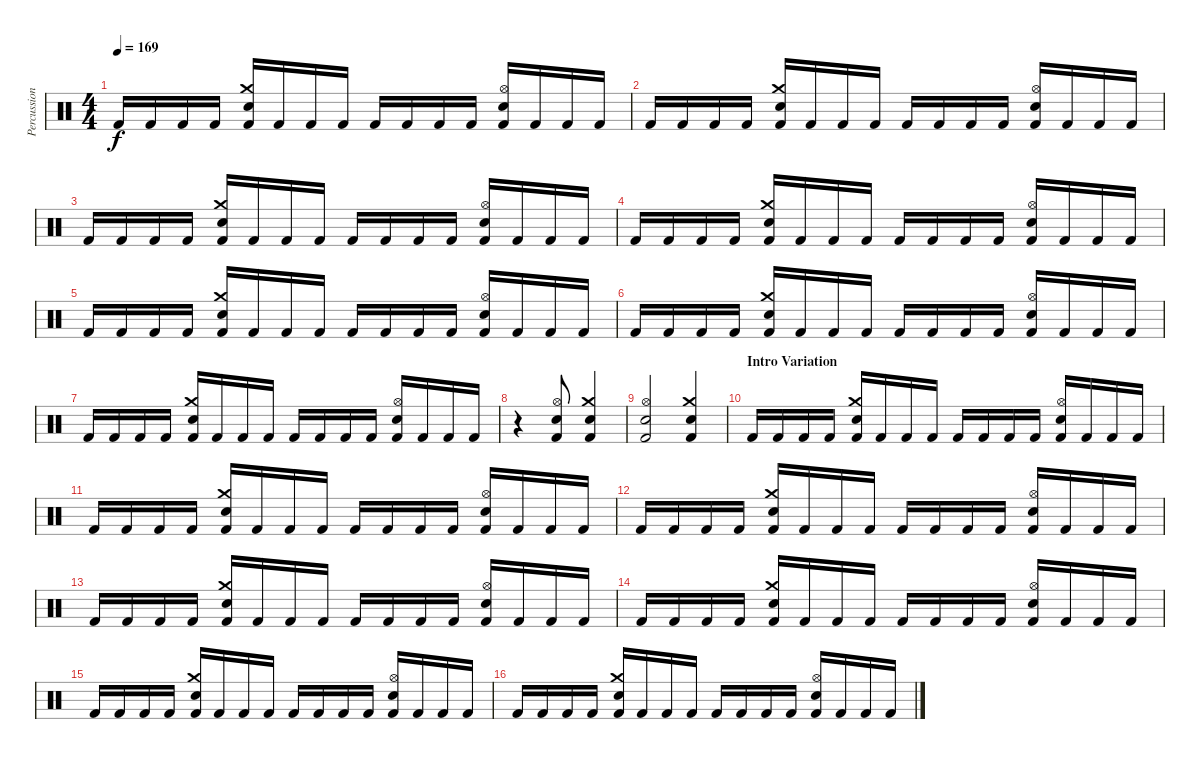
\track ("Percussion" "Percussion") {instrument percussion}
\staff {score}
\articulation defaults
\ts (4 4)
\tempo 169
\clef neutral
\ks c "Kick (hit) 2".16{dy f} "Kick (hit) 2".16 "Kick (hit) 2".16 "Kick (hit) 2".16
("Crash medium (hit)" "Electric Snare (hit)" "Kick (hit) 2").16 "Kick (hit) 2".16 "Kick (hit) 2".16 "Kick (hit) 2".16 "Kick (hit) 2".16 "Kick (hit) 2".16 "Kick (hit) 2".16 "Kick (hit) 2".16 ("Hi-Hat (open)" "Snare (hit) 2" "Kick (hit) 2").16 "Kick (hit) 2".16 "Kick (hit) 2".16 "Kick (hit) 2".16 |
"Kick (hit) 2".16 "Kick (hit) 2".16 "Kick (hit) 2".16 "Kick (hit) 2".16 ("Crash medium (hit)" "Electric Snare (hit)" "Kick (hit) 2").16 "Kick (hit) 2".16 "Kick (hit) 2".16 "Kick (hit) 2".16 "Kick (hit) 2".16 "Kick (hit) 2".16 "Kick (hit) 2".16 "Kick (hit) 2".16 ("Hi-Hat (open)" "Snare (hit) 2" "Kick (hit) 2").16 "Kick (hit) 2".16 "Kick (hit) 2".16 "Kick (hit) 2".16 |
"Kick (hit) 2".16 "Kick (hit) 2".16 "Kick (hit) 2".16 "Kick (hit) 2".16 ("Crash medium (hit)" "Electric Snare (hit)" "Kick (hit) 2").16 "Kick (hit) 2".16 "Kick (hit) 2".16 "Kick (hit) 2".16 "Kick (hit) 2".16 "Kick (hit) 2".16 "Kick (hit) 2".16 "Kick (hit) 2".16 ("Hi-Hat (open)" "Snare (hit) 2" "Kick (hit) 2").16 "Kick (hit) 2".16 "Kick (hit) 2".16 "Kick (hit) 2".16 |
"Kick (hit) 2".16 "Kick (hit) 2".16 "Kick (hit) 2".16 "Kick (hit) 2".16 ("Crash medium (hit)" "Electric Snare (hit)" "Kick (hit) 2").16 "Kick (hit) 2".16 "Kick (hit) 2".16 "Kick (hit) 2".16 "Kick (hit) 2".16 "Kick (hit) 2".16 "Kick (hit) 2".16 "Kick (hit) 2".16 ("Hi-Hat (open)" "Snare (hit) 2" "Kick (hit) 2").16 "Kick (hit) 2".16 "Kick (hit) 2".16 "Kick (hit) 2".16 |
"Kick (hit) 2".16 "Kick (hit) 2".16 "Kick (hit) 2".16 "Kick (hit) 2".16 ("Crash medium (hit)" "Electric Snare (hit)" "Kick (hit) 2").16 "Kick (hit) 2".16 "Kick (hit) 2".16 "Kick (hit) 2".16 "Kick (hit) 2".16 "Kick (hit) 2".16 "Kick (hit) 2".16 "Kick (hit) 2".16 ("Hi-Hat (open)" "Snare (hit) 2" "Kick (hit) 2").16 "Kick (hit) 2".16 "Kick (hit) 2".16 "Kick (hit) 2".16 |
"Kick (hit) 2".16 "Kick (hit) 2".16 "Kick (hit) 2".16 "Kick (hit) 2".16 ("Crash medium (hit)" "Electric Snare (hit)" "Kick (hit) 2").16 "Kick (hit) 2".16 "Kick (hit) 2".16 "Kick (hit) 2".16 "Kick (hit) 2".16 "Kick (hit) 2".16 "Kick (hit) 2".16 "Kick (hit) 2".16 ("Hi-Hat (open)" "Snare (hit) 2" "Kick (hit) 2").16 "Kick (hit) 2".16 "Kick (hit) 2".16 "Kick (hit) 2".16 |
"Kick (hit) 2".16 "Kick (hit) 2".16 "Kick (hit) 2".16 "Kick (hit) 2".16 ("Crash medium (hit)" "Electric Snare (hit)" "Kick (hit) 2").16 "Kick (hit) 2".16 "Kick (hit) 2".16 "Kick (hit) 2".16 "Kick (hit) 2".16 "Kick (hit) 2".16 "Kick (hit) 2".16 "Kick (hit) 2".16 ("Hi-Hat (open)" "Snare (hit) 2" "Kick (hit) 2").16 "Kick (hit) 2".16 "Kick (hit) 2".16 "Kick (hit) 2".16 |
r.4 ("Hi-Hat (open)" "Snare (hit) 2" "Kick (hit) 2").8 ("Crash medium (hit)" "Snare (hit) 2" "Kick (hit) 2").4 |
("Hi-Hat (open)" "Snare (hit) 2" "Kick (hit) 2").2 ("Crash medium (hit)" "Snare (hit) 2" "Kick (hit) 2").4 |
\section ("" "Intro Variation")
"Kick (hit) 2".16 "Kick (hit) 2".16 "Kick (hit) 2".16 "Kick (hit) 2".16 ("Crash medium (hit)" "Electric Snare (hit)" "Kick (hit) 2").16 "Kick (hit) 2".16 "Kick (hit) 2".16 "Kick (hit) 2".16 "Kick (hit) 2".16 "Kick (hit) 2".16 "Kick (hit) 2".16 "Kick (hit) 2".16 ("Hi-Hat (open)" "Snare (hit) 2" "Kick (hit) 2").16 "Kick (hit) 2".16 "Kick (hit) 2".16 "Kick (hit) 2".16 |
"Kick (hit) 2".16 "Kick (hit) 2".16 "Kick (hit) 2".16 "Kick (hit) 2".16 ("Crash medium (hit)" "Electric Snare (hit)" "Kick (hit) 2").16 "Kick (hit) 2".16 "Kick (hit) 2".16 "Kick (hit) 2".16 "Kick (hit) 2".16 "Kick (hit) 2".16 "Kick (hit) 2".16 "Kick (hit) 2".16 ("Hi-Hat (open)" "Snare (hit) 2" "Kick (hit) 2").16 "Kick (hit) 2".16 "Kick (hit) 2".16 "Kick (hit) 2".16 |
"Kick (hit) 2".16 "Kick (hit) 2".16 "Kick (hit) 2".16 "Kick (hit) 2".16 ("Crash medium (hit)" "Electric Snare (hit)" "Kick (hit) 2").16 "Kick (hit) 2".16 "Kick (hit) 2".16 "Kick (hit) 2".16 "Kick (hit) 2".16 "Kick (hit) 2".16 "Kick (hit) 2".16 "Kick (hit) 2".16 ("Hi-Hat (open)" "Snare (hit) 2" "Kick (hit) 2").16 "Kick (hit) 2".16 "Kick (hit) 2".16 "Kick (hit) 2".16 |
"Kick (hit) 2".16 "Kick (hit) 2".16 "Kick (hit) 2".16 "Kick (hit) 2".16 ("Crash medium (hit)" "Electric Snare (hit)" "Kick (hit) 2").16 "Kick (hit) 2".16 "Kick (hit) 2".16 "Kick (hit) 2".16 "Kick (hit) 2".16 "Kick (hit) 2".16 "Kick (hit) 2".16 "Kick (hit) 2".16 ("Hi-Hat (open)" "Snare (hit) 2" "Kick (hit) 2").16 "Kick (hit) 2".16 "Kick (hit) 2".16 "Kick (hit) 2".16 |
"Kick (hit) 2".16 "Kick (hit) 2".16 "Kick (hit) 2".16 "Kick (hit) 2".16 ("Crash medium (hit)" "Electric Snare (hit)" "Kick (hit) 2").16 "Kick (hit) 2".16 "Kick (hit) 2".16 "Kick (hit) 2".16 "Kick (hit) 2".16 "Kick (hit) 2".16 "Kick (hit) 2".16 "Kick (hit) 2".16 ("Hi-Hat (open)" "Snare (hit) 2" "Kick (hit) 2").16 "Kick (hit) 2".16 "Kick (hit) 2".16 "Kick (hit) 2".16 |
"Kick (hit) 2".16 "Kick (hit) 2".16 "Kick (hit) 2".16 "Kick (hit) 2".16 ("Crash medium (hit)" "Electric Snare (hit)" "Kick (hit) 2").16 "Kick (hit) 2".16 "Kick (hit) 2".16 "Kick (hit) 2".16 "Kick (hit) 2".16 "Kick (hit) 2".16 "Kick (hit) 2".16 "Kick (hit) 2".16 ("Hi-Hat (open)" "Snare (hit) 2" "Kick (hit) 2").16 "Kick (hit) 2".16 "Kick (hit) 2".16 "Kick (hit) 2".16 |
"Kick (hit) 2".16 "Kick (hit) 2".16 "Kick (hit) 2".16 "Kick (hit) 2".16 ("Crash medium (hit)" "Electric Snare (hit)" "Kick (hit) 2").16 "Kick (hit) 2".16 "Kick (hit) 2".16 "Kick (hit) 2".16 "Kick (hit) 2".16 "Kick (hit) 2".16 "Kick (hit) 2".16 "Kick (hit) 2".16 ("Hi-Hat (open)" "Snare (hit) 2" "Kick (hit) 2").16 "Kick (hit) 2".16 "Kick (hit) 2".16 "Kick (hit) 2".16
